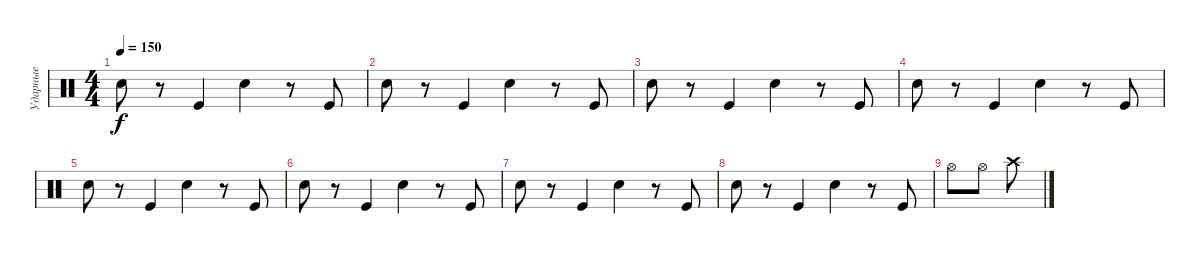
\track ("Ударные" "Ударные") {instrument percussion}
\staff {score}
\articulation defaults
\ts (4 4)
\tempo 150
\clef neutral
\ks c "Snare (hit) 2".8{dy f}
r.8 "Kick (hit)".4 "Snare (hit) 2".4 r.8 "Kick (hit)".8 |
"Snare (hit) 2".8 r.8 "Kick (hit)".4 "Snare (hit) 2".4 r.8 "Kick (hit)".8 |
"Snare (hit) 2".8 r.8 "Kick (hit)".4 "Snare (hit) 2".4 r.8 "Kick (hit)".8 |
"Snare (hit) 2".8 r.8 "Kick (hit)".4 "Snare (hit) 2".4 r.8 "Kick (hit)".8 |
"Snare (hit) 2".8 r.8 "Kick (hit)".4 "Snare (hit) 2".4 r.8 "Kick (hit)".8 |
"Snare (hit) 2".8 r.8 "Kick (hit)".4 "Snare (hit) 2".4 r.8 "Kick (hit)".8 |
"Snare (hit) 2".8 r.8 "Kick (hit)".4 "Snare (hit) 2".4 r.8 "Kick (hit)".8 |
"Snare (hit) 2".8 r.8 "Kick (hit)".4 "Snare (hit) 2".4 r.8 "Kick (hit)".8 |
"Hi-Hat (open)".8 "Hi-Hat (open)".8 "Crash high (hit)".8
